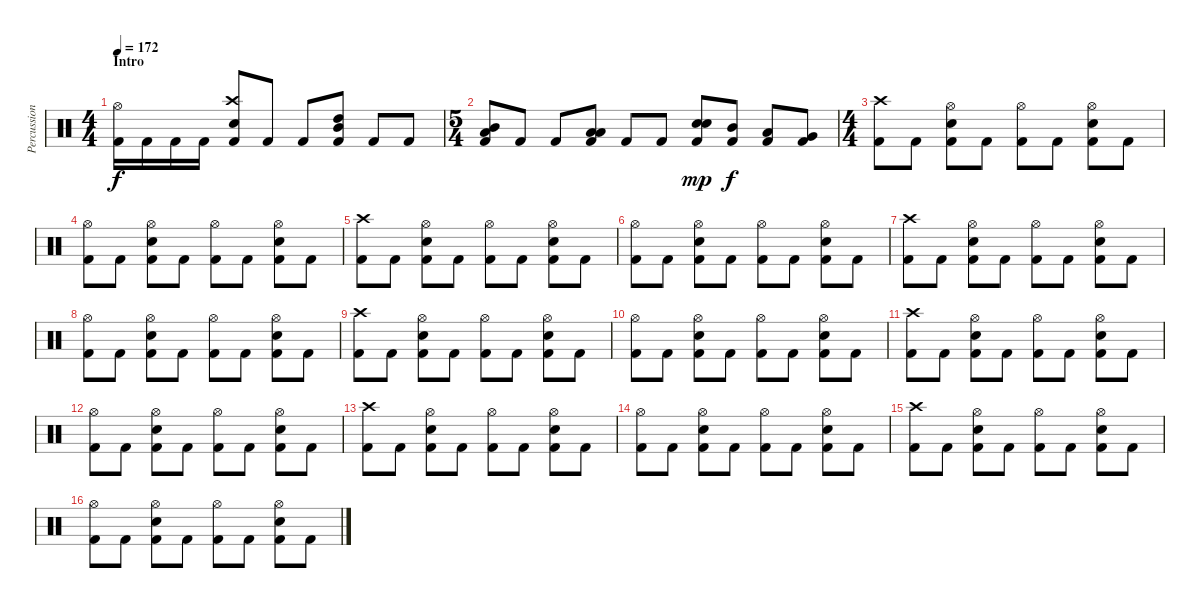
\track ("Percussion" "Percussion") {instrument percussion}
\staff {score}
\articulation defaults
\ts (4 4)
\section ("" "Intro")
\tempo 172
\clef neutral
\ks c
("Hi-Hat (open)" "Kick (hit) 2").16{dy f} "Kick (hit) 2".16 "Kick (hit) 2".16 "Kick (hit) 2".16 ("Crash high (hit)" "Electric Snare (hit)" "Kick (hit) 2").8 "Kick (hit) 2".8 "Kick (hit) 2".8 ("High Tom (hit)" "Mid Tom (hit)" "Kick (hit) 2").8 "Kick (hit) 2".8 "Kick (hit) 2".8 |
\ts (5 4)
("Mid Tom (hit)" "Low Tom (hit)" "Kick (hit) 2").8 "Kick (hit) 2".8 "Kick (hit) 2".8 ("Low Tom (hit)" "Low Tom (hit)" "Kick (hit) 2").8 "Kick (hit) 2".8 "Kick (hit) 2".8 ("Snare (hit) 2" "Electric Snare (hit)" "Kick (hit) 2").8{dy mp} ("Mid Tom (hit)" "Kick (hit) 2").8{dy f} ("Low Tom (hit)" "Kick (hit) 2").8 ("Very Low Tom (hit)" "Kick (hit) 2").8 |
\ts (4 4)
("Crash high (hit)" "Kick (hit) 2").8 "Kick (hit) 2".8 ("Hi-Hat (open)" "Electric Snare (hit)" "Kick (hit) 2").8 "Kick (hit) 2".8 ("Hi-Hat (open)" "Kick (hit) 2").8 "Kick (hit) 2".8 ("Hi-Hat (open)" "Electric Snare (hit)" "Kick (hit) 2").8 "Kick (hit) 2".8 |
("Hi-Hat (open)" "Kick (hit) 2").8 "Kick (hit) 2".8 ("Hi-Hat (open)" "Electric Snare (hit)" "Kick (hit) 2").8 "Kick (hit) 2".8 ("Hi-Hat (open)" "Kick (hit) 2").8 "Kick (hit) 2".8 ("Hi-Hat (open)" "Electric Snare (hit)" "Kick (hit) 2").8 "Kick (hit) 2".8 |
("Crash high (hit)" "Kick (hit) 2").8 "Kick (hit) 2".8 ("Hi-Hat (open)" "Electric Snare (hit)" "Kick (hit) 2").8 "Kick (hit) 2".8 ("Hi-Hat (open)" "Kick (hit) 2").8 "Kick (hit) 2".8 ("Hi-Hat (open)" "Electric Snare (hit)" "Kick (hit) 2").8 "Kick (hit) 2".8 |
("Hi-Hat (open)" "Kick (hit) 2").8 "Kick (hit) 2".8 ("Hi-Hat (open)" "Electric Snare (hit)" "Kick (hit) 2").8 "Kick (hit) 2".8 ("Hi-Hat (open)" "Kick (hit) 2").8 "Kick (hit) 2".8 ("Hi-Hat (open)" "Electric Snare (hit)" "Kick (hit) 2").8 "Kick (hit) 2".8 |
("Crash high (hit)" "Kick (hit) 2").8 "Kick (hit) 2".8 ("Hi-Hat (open)" "Electric Snare (hit)" "Kick (hit) 2").8 "Kick (hit) 2".8 ("Hi-Hat (open)" "Kick (hit) 2").8 "Kick (hit) 2".8 ("Hi-Hat (open)" "Electric Snare (hit)" "Kick (hit) 2").8 "Kick (hit) 2".8 |
("Hi-Hat (open)" "Kick (hit) 2").8 "Kick (hit) 2".8 ("Hi-Hat (open)" "Electric Snare (hit)" "Kick (hit) 2").8 "Kick (hit) 2".8 ("Hi-Hat (open)" "Kick (hit) 2").8 "Kick (hit) 2".8 ("Hi-Hat (open)" "Electric Snare (hit)" "Kick (hit) 2").8 "Kick (hit) 2".8 |
("Crash high (hit)" "Kick (hit) 2").8 "Kick (hit) 2".8 ("Hi-Hat (open)" "Electric Snare (hit)" "Kick (hit) 2").8 "Kick (hit) 2".8 ("Hi-Hat (open)" "Kick (hit) 2").8 "Kick (hit) 2".8 ("Hi-Hat (open)" "Electric Snare (hit)" "Kick (hit) 2").8 "Kick (hit) 2".8 |
("Hi-Hat (open)" "Kick (hit) 2").8 "Kick (hit) 2".8 ("Hi-Hat (open)" "Electric Snare (hit)" "Kick (hit) 2").8 "Kick (hit) 2".8 ("Hi-Hat (open)" "Kick (hit) 2").8 "Kick (hit) 2".8 ("Hi-Hat (open)" "Electric Snare (hit)" "Kick (hit) 2").8 "Kick (hit) 2".8 |
("Crash high (hit)" "Kick (hit) 2").8 "Kick (hit) 2".8 ("Hi-Hat (open)" "Electric Snare (hit)" "Kick (hit) 2").8 "Kick (hit) 2".8 ("Hi-Hat (open)" "Kick (hit) 2").8 "Kick (hit) 2".8 ("Hi-Hat (open)" "Electric Snare (hit)" "Kick (hit) 2").8 "Kick (hit) 2".8 |
("Hi-Hat (open)" "Kick (hit) 2").8 "Kick (hit) 2".8 ("Hi-Hat (open)" "Electric Snare (hit)" "Kick (hit) 2").8 "Kick (hit) 2".8 ("Hi-Hat (open)" "Kick (hit) 2").8 "Kick (hit) 2".8 ("Hi-Hat (open)" "Electric Snare (hit)" "Kick (hit) 2").8 "Kick (hit) 2".8 |
("Crash high (hit)" "Kick (hit) 2").8 "Kick (hit) 2".8 ("Hi-Hat (open)" "Electric Snare (hit)" "Kick (hit) 2").8 "Kick (hit) 2".8 ("Hi-Hat (open)" "Kick (hit) 2").8 "Kick (hit) 2".8 ("Hi-Hat (open)" "Electric Snare (hit)" "Kick (hit) 2").8 "Kick (hit) 2".8 |
("Hi-Hat (open)" "Kick (hit) 2").8 "Kick (hit) 2".8 ("Hi-Hat (open)" "Electric Snare (hit)" "Kick (hit) 2").8 "Kick (hit) 2".8 ("Hi-Hat (open)" "Kick (hit) 2").8 "Kick (hit) 2".8 ("Hi-Hat (open)" "Electric Snare (hit)" "Kick (hit) 2").8 "Kick (hit) 2".8 |
("Crash high (hit)" "Kick (hit) 2").8 "Kick (hit) 2".8 ("Hi-Hat (open)" "Electric Snare (hit)" "Kick (hit) 2").8 "Kick (hit) 2".8 ("Hi-Hat (open)" "Kick (hit) 2").8 "Kick (hit) 2".8 ("Hi-Hat (open)" "Electric Snare (hit)" "Kick (hit) 2").8 "Kick (hit) 2".8 |
("Hi-Hat (open)" "Kick (hit) 2").8 "Kick (hit) 2".8 ("Hi-Hat (open)" "Electric Snare (hit)" "Kick (hit) 2").8 "Kick (hit) 2".8 ("Hi-Hat (open)" "Kick (hit) 2").8 "Kick (hit) 2".8 ("Hi-Hat (open)" "Electric Snare (hit)" "Kick (hit) 2").8 "Kick (hit) 2".8
